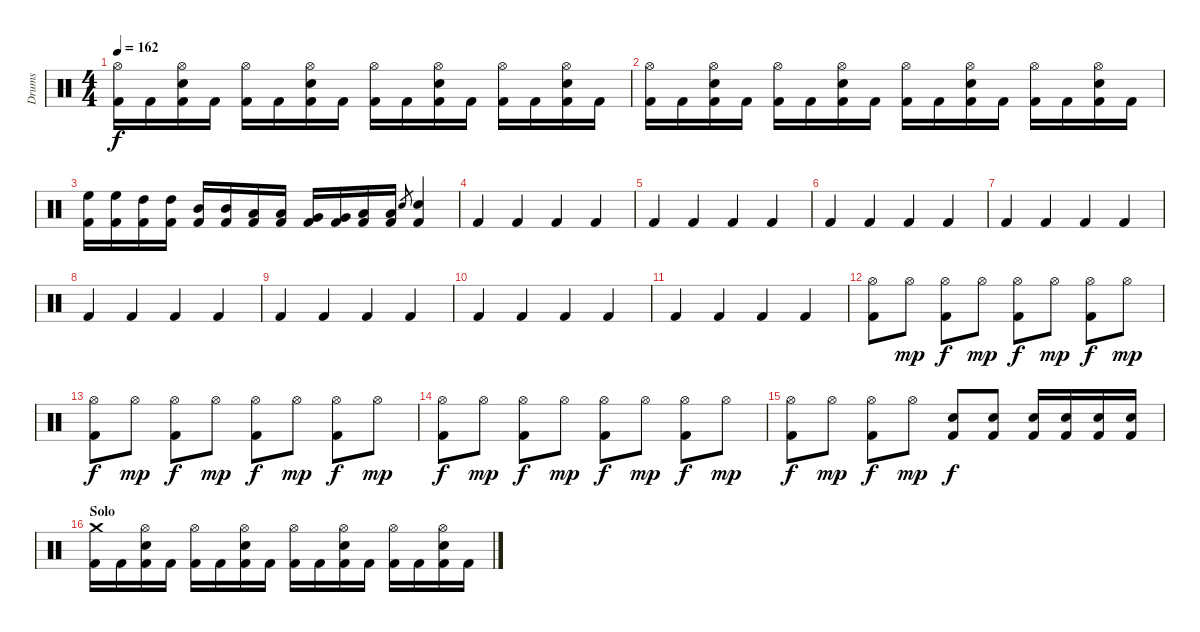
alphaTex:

\track ("Drums" "Drums") {instrument percussion}
\staff {score}
\articulation defaults
\ts (4 4)
\tempo 162
\clef neutral
\ks c
("Kick (hit) 2" "Hi-Hat (open)").16{dy f} "Kick (hit) 2".16 ("Kick (hit) 2" "Snare (hit) 2" "Hi-Hat (open)").16 "Kick (hit) 2".16 ("Kick (hit) 2" "Hi-Hat (open)").16 "Kick (hit) 2".16 ("Kick (hit) 2" "Snare (hit) 2" "Hi-Hat (open)").16 "Kick (hit) 2".16 ("Kick (hit) 2" "Hi-Hat (open)").16 "Kick (hit) 2".16 ("Kick (hit) 2" "Snare (hit) 2" "Hi-Hat (open)").16 "Kick (hit) 2".16 ("Kick (hit) 2" "Hi-Hat (open)").16 "Kick (hit) 2".16 ("Kick (hit) 2" "Snare (hit) 2" "Hi-Hat (open)").16 "Kick (hit) 2".16 |
("Kick (hit) 2" "Hi-Hat (open)").16 "Kick (hit) 2".16 ("Kick (hit) 2" "Snare (hit) 2" "Hi-Hat (open)").16 "Kick (hit) 2".16 ("Kick (hit) 2" "Hi-Hat (open)").16 "Kick (hit) 2".16 ("Kick (hit) 2" "Snare (hit) 2" "Hi-Hat (open)").16 "Kick (hit) 2".16 ("Kick (hit) 2" "Hi-Hat (open)").16 "Kick (hit) 2".16 ("Kick (hit) 2" "Snare (hit) 2" "Hi-Hat (open)").16 "Kick (hit) 2".16 ("Kick (hit) 2" "Hi-Hat (open)").16 "Kick (hit) 2".16 ("Kick (hit) 2" "Snare (hit) 2" "Hi-Hat (open)").16 "Kick (hit) 2".16 |
("Kick (hit) 2" "High Floor Tom (hit)").16 ("Kick (hit) 2" "High Floor Tom (hit)").16 ("Kick (hit) 2" "High Tom (hit)").16 ("Kick (hit) 2" "High Tom (hit)").16 ("Kick (hit) 2" "Mid Tom (hit)").16 ("Kick (hit) 2" "Mid Tom (hit)").16 ("Kick (hit) 2" "Low Tom (hit)").16 ("Kick (hit) 2" "Low Tom (hit)").16 ("Kick (hit) 2" "Very Low Tom (hit)").16 ("Kick (hit) 2" "Very Low Tom (hit)").16 ("Kick (hit) 2" "Low Floor Tom (hit)").16 ("Kick (hit) 2" "Low Floor Tom (hit)").16 "Snare (hit) 2".8{gr} ("Kick (hit) 2" "Snare (hit) 2").4 |
\section ("" "")
"Kick (hit) 2".4 "Kick (hit) 2".4 "Kick (hit) 2".4 "Kick (hit) 2".4 |
"Kick (hit) 2".4 "Kick (hit) 2".4 "Kick (hit) 2".4 "Kick (hit) 2".4 |
"Kick (hit) 2".4 "Kick (hit) 2".4 "Kick (hit) 2".4 "Kick (hit) 2".4 |
"Kick (hit) 2".4 "Kick (hit) 2".4 "Kick (hit) 2".4 "Kick (hit) 2".4 |
"Kick (hit) 2".4 "Kick (hit) 2".4 "Kick (hit) 2".4 "Kick (hit) 2".4 |
"Kick (hit) 2".4 "Kick (hit) 2".4 "Kick (hit) 2".4 "Kick (hit) 2".4 |
"Kick (hit) 2".4 "Kick (hit) 2".4 "Kick (hit) 2".4 "Kick (hit) 2".4 |
"Kick (hit) 2".4 "Kick (hit) 2".4 "Kick (hit) 2".4 "Kick (hit) 2".4 |
\section ("" "")
("Kick (hit) 2" "Hi-Hat (open)").8 "Hi-Hat (open)".8{dy mp} ("Kick (hit) 2" "Hi-Hat (open)").8{dy f} "Hi-Hat (open)".8{dy mp} ("Kick (hit) 2" "Hi-Hat (open)").8{dy f} "Hi-Hat (open)".8{dy mp} ("Kick (hit) 2" "Hi-Hat (open)").8{dy f} "Hi-Hat (open)".8{dy mp} |
("Kick (hit) 2" "Hi-Hat (open)").8{dy f} "Hi-Hat (open)".8{dy mp} ("Kick (hit) 2" "Hi-Hat (open)").8{dy f} "Hi-Hat (open)".8{dy mp} ("Kick (hit) 2" "Hi-Hat (open)").8{dy f} "Hi-Hat (open)".8{dy mp} ("Kick (hit) 2" "Hi-Hat (open)").8{dy f} "Hi-Hat (open)".8{dy mp} |
("Kick (hit) 2" "Hi-Hat (open)").8{dy f} "Hi-Hat (open)".8{dy mp} ("Kick (hit) 2" "Hi-Hat (open)").8{dy f} "Hi-Hat (open)".8{dy mp} ("Kick (hit) 2" "Hi-Hat (open)").8{dy f} "Hi-Hat (open)".8{dy mp} ("Kick (hit) 2" "Hi-Hat (open)").8{dy f} "Hi-Hat (open)".8{dy mp} |
("Kick (hit) 2" "Hi-Hat (open)").8{dy f} "Hi-Hat (open)".8{dy mp} ("Kick (hit) 2" "Hi-Hat (open)").8{dy f} "Hi-Hat (open)".8{dy mp} ("Kick (hit) 2" "Snare (hit) 2").8{dy f} ("Kick (hit) 2" "Snare (hit) 2").8 ("Kick (hit) 2" "Snare (hit) 2").16 ("Kick (hit) 2" "Snare (hit) 2").16 ("Kick (hit) 2" "Snare (hit) 2").16 ("Kick (hit) 2" "Snare (hit) 2").16 |
\section ("" "Solo")
("Kick (hit) 2" "Crash medium (hit)").16 "Kick (hit) 2".16 ("Kick (hit) 2" "Snare (hit) 2" "Hi-Hat (open)").16 "Kick (hit) 2".16 ("Kick (hit) 2" "Hi-Hat (open)").16 "Kick (hit) 2".16 ("Kick (hit) 2" "Snare (hit) 2" "Hi-Hat (open)").16 "Kick (hit) 2".16 ("Kick (hit) 2" "Hi-Hat (open)").16 "Kick (hit) 2".16 ("Kick (hit) 2" "Snare (hit) 2" "Hi-Hat (open)").16 "Kick (hit) 2".16 ("Kick (hit) 2" "Hi-Hat (open)").16 "Kick (hit) 2".16 ("Kick (hit) 2" "Snare (hit) 2" "Hi-Hat (open)").16 "Kick (hit) 2".16
